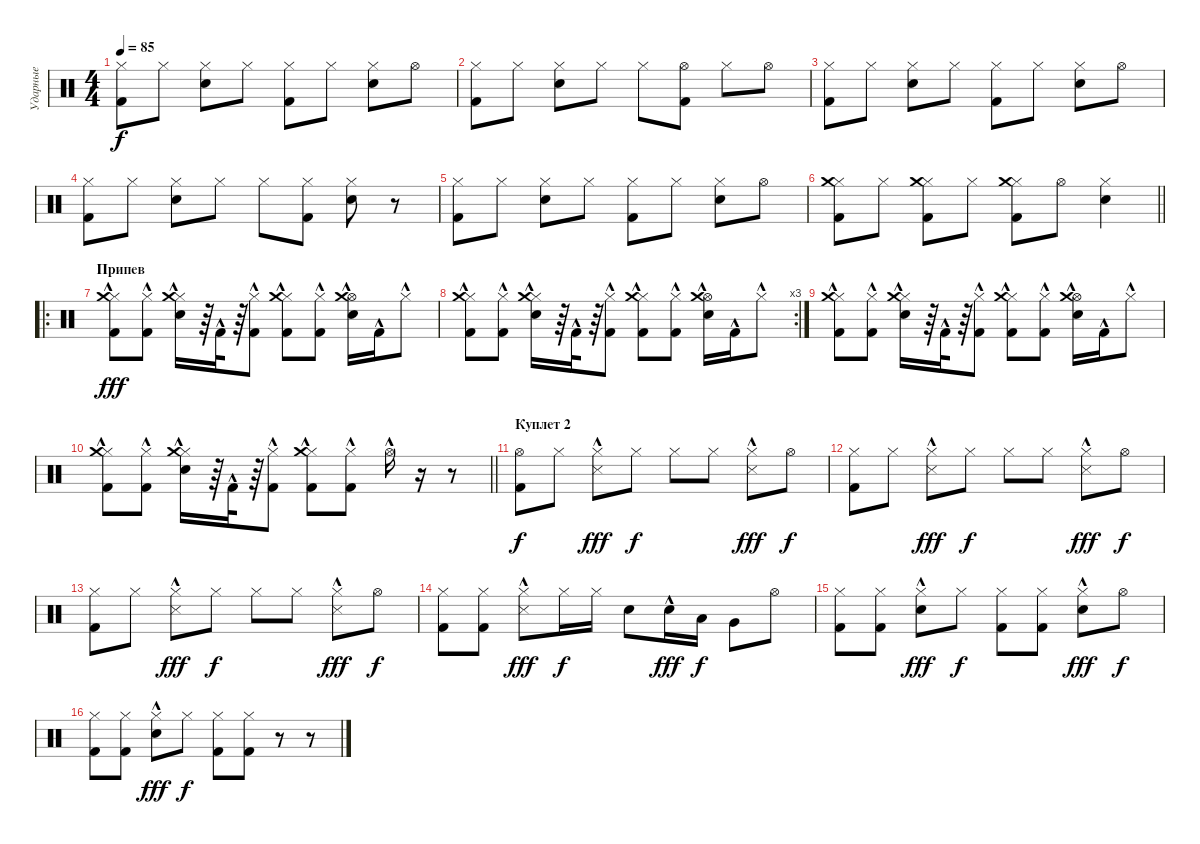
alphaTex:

\track ("Ударные" "Ударные") {instrument percussion}
\staff {score}
\articulation defaults
\ts (4 4)
\tempo 85
\clef neutral
\ks c
("Hi-Hat (closed)" "Kick (hit) 2").8{dy f} "Hi-Hat (closed)".8 ("Hi-Hat (closed)" "Electric Snare (hit)").8 "Hi-Hat (closed)".8 ("Hi-Hat (closed)" "Kick (hit) 2").8 "Hi-Hat (closed)".8 ("Hi-Hat (closed)" "Electric Snare (hit)").8 "Hi-Hat (open)".8 |
("Hi-Hat (closed)" "Kick (hit) 2").8 "Hi-Hat (closed)".8 ("Hi-Hat (closed)" "Electric Snare (hit)").8 "Hi-Hat (closed)".8 "Hi-Hat (closed)".8 ("Hi-Hat (open)" "Kick (hit) 2").8 "Hi-Hat (closed)".8 "Hi-Hat (open)".8 |
("Hi-Hat (closed)" "Kick (hit) 2").8 "Hi-Hat (closed)".8 ("Hi-Hat (closed)" "Electric Snare (hit)").8 "Hi-Hat (closed)".8 ("Hi-Hat (closed)" "Kick (hit) 2").8 "Hi-Hat (closed)".8 ("Hi-Hat (closed)" "Electric Snare (hit)").8 "Hi-Hat (open)".8 |
("Hi-Hat (closed)" "Kick (hit) 2").8 "Hi-Hat (closed)".8 ("Hi-Hat (closed)" "Electric Snare (hit)").8 "Hi-Hat (closed)".8 "Hi-Hat (closed)".8 ("Hi-Hat (closed)" "Kick (hit) 2").8 ("Hi-Hat (closed)" "Electric Snare (hit)").8 r.8 |
("Hi-Hat (closed)" "Kick (hit) 2").8 "Hi-Hat (closed)".8 ("Hi-Hat (closed)" "Electric Snare (hit)").8 "Hi-Hat (closed)".8 ("Hi-Hat (closed)" "Kick (hit) 2").8 "Hi-Hat (closed)".8 ("Hi-Hat (closed)" "Electric Snare (hit)").8 "Hi-Hat (open)".8 |
\barLineRight lightlight
("Hi-Hat (closed)" "Kick (hit) 2" "Crash medium (hit)").8 "Hi-Hat (closed)".8 ("Hi-Hat (closed)" "Kick (hit) 2" "Crash medium (hit)").8 "Hi-Hat (closed)".8 ("Hi-Hat (closed)" "Kick (hit) 2" "Crash medium (hit)").8 "Hi-Hat (open)".8 ("Hi-Hat (closed)" "Electric Snare (hit)").4 |
\ro
\section ("" "Припев")
("Hi-Hat (closed)"{hac} "Kick (hit) 2"{hac} "Crash medium (hit)"{hac}).8{dy fff} ("Hi-Hat (closed)"{hac} "Kick (hit) 2"{hac}).8 ("Hi-Hat (closed)"{hac} "Electric Snare (hit)"{hac} "Crash medium (hit)"{hac}).16 r.64 "Kick (hit) 2"{hac}.32 r.64 ("Hi-Hat (closed)"{hac} "Kick (hit) 2"{hac}).8 ("Hi-Hat (closed)"{hac} "Kick (hit) 2"{hac} "Crash medium (hit)"{hac}).8 ("Hi-Hat (closed)"{hac} "Kick (hit) 2"{hac}).8 ("Hi-Hat (open)"{hac} "Electric Snare (hit)"{hac} "Crash medium (hit)"{hac}).16 "Kick (hit) 2"{hac}.16 "Hi-Hat (closed)"{hac}.8 |
\rc 3
("Hi-Hat (closed)"{hac} "Kick (hit) 2"{hac} "Crash medium (hit)"{hac}).8 ("Hi-Hat (closed)"{hac} "Kick (hit) 2"{hac}).8 ("Hi-Hat (closed)"{hac} "Electric Snare (hit)"{hac} "Crash medium (hit)"{hac}).16 r.64 "Kick (hit) 2"{hac}.32 r.64 ("Hi-Hat (closed)"{hac} "Kick (hit) 2"{hac}).8 ("Hi-Hat (closed)"{hac} "Kick (hit) 2"{hac} "Crash medium (hit)"{hac}).8 ("Hi-Hat (closed)"{hac} "Kick (hit) 2"{hac}).8 ("Hi-Hat (open)"{hac} "Electric Snare (hit)"{hac} "Crash medium (hit)"{hac}).16 "Kick (hit) 2"{hac}.16 "Hi-Hat (closed)"{hac}.8 |
("Hi-Hat (closed)"{hac} "Kick (hit) 2"{hac} "Crash medium (hit)"{hac}).8 ("Hi-Hat (closed)"{hac} "Kick (hit) 2"{hac}).8 ("Hi-Hat (closed)"{hac} "Electric Snare (hit)"{hac} "Crash medium (hit)"{hac}).16 r.64 "Kick (hit) 2"{hac}.32 r.64 ("Hi-Hat (closed)"{hac} "Kick (hit) 2"{hac}).8 ("Hi-Hat (closed)"{hac} "Kick (hit) 2"{hac} "Crash medium (hit)"{hac}).8 ("Hi-Hat (closed)"{hac} "Kick (hit) 2"{hac}).8 ("Hi-Hat (open)"{hac} "Electric Snare (hit)"{hac} "Crash medium (hit)"{hac}).16 "Kick (hit) 2"{hac}.16 "Hi-Hat (closed)"{hac}.8 |
\barLineRight lightlight
("Hi-Hat (closed)"{hac} "Kick (hit) 2"{hac} "Crash medium (hit)"{hac}).8 ("Hi-Hat (closed)"{hac} "Kick (hit) 2"{hac}).8 ("Hi-Hat (closed)"{hac} "Electric Snare (hit)"{hac} "Crash medium (hit)"{hac}).16 r.64 "Kick (hit) 2"{hac}.32 r.64 ("Hi-Hat (closed)"{hac} "Kick (hit) 2"{hac}).8 ("Hi-Hat (closed)"{hac} "Kick (hit) 2"{hac} "Crash medium (hit)"{hac}).8 ("Hi-Hat (closed)"{hac} "Kick (hit) 2"{hac}).8 "Hi-Hat (open)"{hac}.16 r.16 r.8 |
\section ("" "Куплет 2")
("Hi-Hat (open)" "Kick (hit) 2").8{dy f} "Hi-Hat (closed)".8 ("Hi-Hat (closed)" "Snare (side stick) 3"{hac}).8{dy fff} "Hi-Hat (closed)".8{dy f} "Hi-Hat (closed)".8 "Hi-Hat (closed)".8 ("Hi-Hat (closed)" "Snare (side stick) 3"{hac}).8{dy fff} "Hi-Hat (open)".8{dy f} |
("Hi-Hat (closed)" "Kick (hit) 2").8 "Hi-Hat (closed)".8 ("Hi-Hat (closed)" "Snare (side stick) 3"{hac}).8{dy fff} "Hi-Hat (closed)".8{dy f} "Hi-Hat (closed)".8 "Hi-Hat (closed)".8 ("Hi-Hat (closed)" "Snare (side stick) 3"{hac}).8{dy fff} "Hi-Hat (open)".8{dy f} |
("Hi-Hat (closed)" "Kick (hit) 2").8 "Hi-Hat (closed)".8 ("Hi-Hat (closed)" "Snare (side stick) 3"{hac}).8{dy fff} "Hi-Hat (closed)".8{dy f} "Hi-Hat (closed)".8 "Hi-Hat (closed)".8 ("Hi-Hat (closed)" "Snare (side stick) 3"{hac}).8{dy fff} "Hi-Hat (open)".8{dy f} |
("Hi-Hat (closed)" "Kick (hit) 2").8 ("Hi-Hat (closed)" "Kick (hit) 2").8 ("Hi-Hat (closed)" "Snare (side stick) 3"{hac}).8{dy fff} "Hi-Hat (closed)".16{dy f} "Hi-Hat (closed)".16 "Electric Snare (hit)".8 "Electric Snare (hit)"{hac}.16{dy fff} "Low Tom (hit)".16{dy f} "Very Low Tom (hit)".8 "Hi-Hat (open)".8 |
("Hi-Hat (closed)" "Kick (hit) 2").8 ("Hi-Hat (closed)" "Kick (hit) 2").8 ("Hi-Hat (closed)" "Electric Snare (hit)"{hac}).8{dy fff} "Hi-Hat (closed)".8{dy f} ("Hi-Hat (closed)" "Kick (hit) 2").8 ("Hi-Hat (closed)" "Kick (hit) 2").8 ("Hi-Hat (closed)" "Electric Snare (hit)"{hac}).8{dy fff} "Hi-Hat (open)".8{dy f} |
("Hi-Hat (closed)" "Kick (hit) 2").8 ("Hi-Hat (closed)" "Kick (hit) 2").8 ("Hi-Hat (closed)" "Electric Snare (hit)"{hac}).8{dy fff} "Hi-Hat (closed)".8{dy f} ("Hi-Hat (closed)" "Kick (hit) 2").8 ("Hi-Hat (closed)" "Kick (hit) 2").8 r.8 r.8
